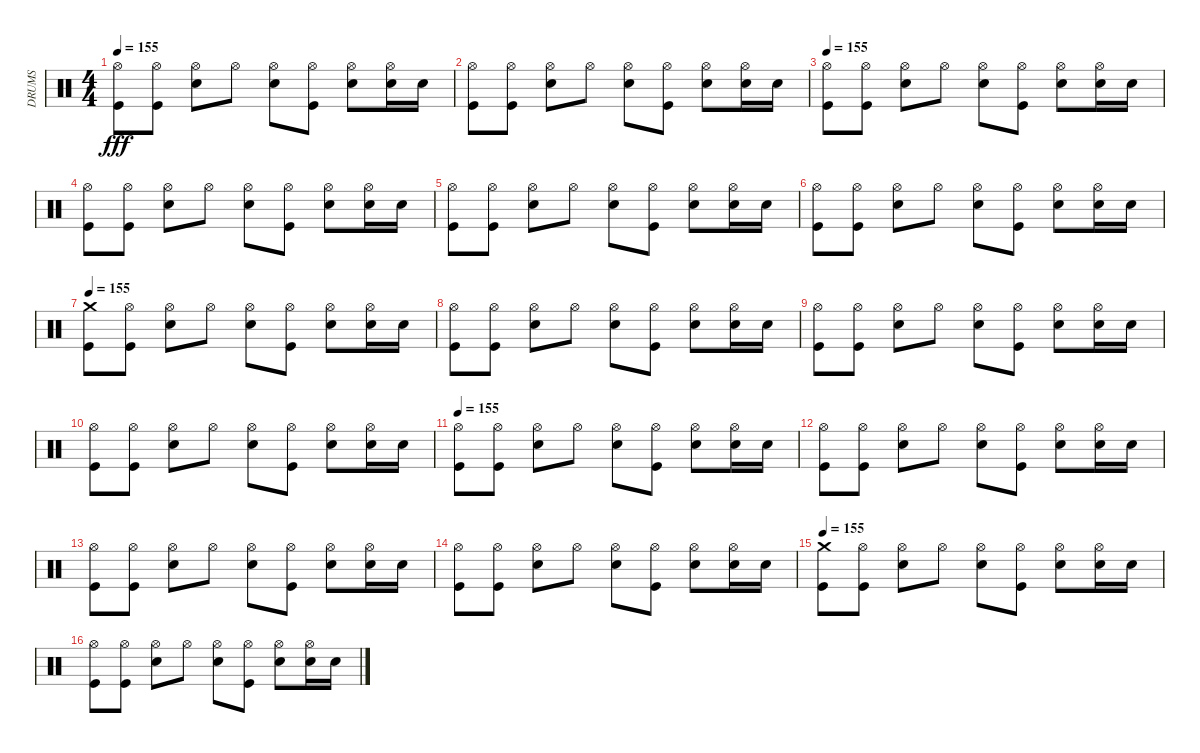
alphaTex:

\track ("DRUMS" "DRUMS") {instrument percussion}
\staff {score}
\articulation defaults
\ts (4 4)
\tempo 155
\clef neutral
\ks c
("Kick (hit)" "Hi-Hat (open)").8{dy fff} ("Kick (hit)" "Hi-Hat (open)").8 ("Snare (hit) 2" "Hi-Hat (open)").8 "Hi-Hat (open)".8 ("Snare (hit) 2" "Hi-Hat (open)").8 ("Kick (hit)" "Hi-Hat (open)").8 ("Snare (hit) 2" "Hi-Hat (open)").8 ("Snare (hit) 2" "Hi-Hat (open)").16 "Snare (hit) 2".16 |
("Kick (hit)" "Hi-Hat (open)").8 ("Kick (hit)" "Hi-Hat (open)").8 ("Snare (hit) 2" "Hi-Hat (open)").8 "Hi-Hat (open)".8 ("Snare (hit) 2" "Hi-Hat (open)").8 ("Kick (hit)" "Hi-Hat (open)").8 ("Snare (hit) 2" "Hi-Hat (open)").8 ("Snare (hit) 2" "Hi-Hat (open)").16 "Snare (hit) 2".16 |
\tempo 155
("Kick (hit)" "Hi-Hat (open)").8 ("Kick (hit)" "Hi-Hat (open)").8 ("Snare (hit) 2" "Hi-Hat (open)").8 "Hi-Hat (open)".8 ("Snare (hit) 2" "Hi-Hat (open)").8 ("Kick (hit)" "Hi-Hat (open)").8 ("Snare (hit) 2" "Hi-Hat (open)").8 ("Snare (hit) 2" "Hi-Hat (open)").16 "Snare (hit) 2".16 |
("Kick (hit)" "Hi-Hat (open)").8 ("Kick (hit)" "Hi-Hat (open)").8 ("Snare (hit) 2" "Hi-Hat (open)").8 "Hi-Hat (open)".8 ("Snare (hit) 2" "Hi-Hat (open)").8 ("Kick (hit)" "Hi-Hat (open)").8 ("Snare (hit) 2" "Hi-Hat (open)").8 ("Snare (hit) 2" "Hi-Hat (open)").16 "Snare (hit) 2".16 |
("Kick (hit)" "Hi-Hat (open)").8 ("Kick (hit)" "Hi-Hat (open)").8 ("Snare (hit) 2" "Hi-Hat (open)").8 "Hi-Hat (open)".8 ("Snare (hit) 2" "Hi-Hat (open)").8 ("Kick (hit)" "Hi-Hat (open)").8 ("Snare (hit) 2" "Hi-Hat (open)").8 ("Snare (hit) 2" "Hi-Hat (open)").16 "Snare (hit) 2".16 |
("Kick (hit)" "Hi-Hat (open)").8 ("Kick (hit)" "Hi-Hat (open)").8 ("Snare (hit) 2" "Hi-Hat (open)").8 "Hi-Hat (open)".8 ("Snare (hit) 2" "Hi-Hat (open)").8 ("Kick (hit)" "Hi-Hat (open)").8 ("Snare (hit) 2" "Hi-Hat (open)").8 ("Snare (hit) 2" "Hi-Hat (open)").16 "Snare (hit) 2".16 |
\tempo 155
("Kick (hit)" "Crash medium (hit)").8 ("Kick (hit)" "Hi-Hat (open)").8 ("Snare (hit) 2" "Hi-Hat (open)").8 "Hi-Hat (open)".8 ("Snare (hit) 2" "Hi-Hat (open)").8 ("Kick (hit)" "Hi-Hat (open)").8 ("Snare (hit) 2" "Hi-Hat (open)").8 ("Snare (hit) 2" "Hi-Hat (open)").16 "Snare (hit) 2".16 |
("Kick (hit)" "Hi-Hat (open)").8 ("Kick (hit)" "Hi-Hat (open)").8 ("Snare (hit) 2" "Hi-Hat (open)").8 "Hi-Hat (open)".8 ("Snare (hit) 2" "Hi-Hat (open)").8 ("Kick (hit)" "Hi-Hat (open)").8 ("Snare (hit) 2" "Hi-Hat (open)").8 ("Snare (hit) 2" "Hi-Hat (open)").16 "Snare (hit) 2".16 |
("Kick (hit)" "Hi-Hat (open)").8 ("Kick (hit)" "Hi-Hat (open)").8 ("Snare (hit) 2" "Hi-Hat (open)").8 "Hi-Hat (open)".8 ("Snare (hit) 2" "Hi-Hat (open)").8 ("Kick (hit)" "Hi-Hat (open)").8 ("Snare (hit) 2" "Hi-Hat (open)").8 ("Snare (hit) 2" "Hi-Hat (open)").16 "Snare (hit) 2".16 |
("Kick (hit)" "Hi-Hat (open)").8 ("Kick (hit)" "Hi-Hat (open)").8 ("Snare (hit) 2" "Hi-Hat (open)").8 "Hi-Hat (open)".8 ("Snare (hit) 2" "Hi-Hat (open)").8 ("Kick (hit)" "Hi-Hat (open)").8 ("Snare (hit) 2" "Hi-Hat (open)").8 ("Snare (hit) 2" "Hi-Hat (open)").16 "Snare (hit) 2".16 |
\tempo 155
("Kick (hit)" "Hi-Hat (open)").8 ("Kick (hit)" "Hi-Hat (open)").8 ("Snare (hit) 2" "Hi-Hat (open)").8 "Hi-Hat (open)".8 ("Snare (hit) 2" "Hi-Hat (open)").8 ("Kick (hit)" "Hi-Hat (open)").8 ("Snare (hit) 2" "Hi-Hat (open)").8 ("Snare (hit) 2" "Hi-Hat (open)").16 "Snare (hit) 2".16 |
("Kick (hit)" "Hi-Hat (open)").8 ("Kick (hit)" "Hi-Hat (open)").8 ("Snare (hit) 2" "Hi-Hat (open)").8 "Hi-Hat (open)".8 ("Snare (hit) 2" "Hi-Hat (open)").8 ("Kick (hit)" "Hi-Hat (open)").8 ("Snare (hit) 2" "Hi-Hat (open)").8 ("Snare (hit) 2" "Hi-Hat (open)").16 "Snare (hit) 2".16 |
("Kick (hit)" "Hi-Hat (open)").8 ("Kick (hit)" "Hi-Hat (open)").8 ("Snare (hit) 2" "Hi-Hat (open)").8 "Hi-Hat (open)".8 ("Snare (hit) 2" "Hi-Hat (open)").8 ("Kick (hit)" "Hi-Hat (open)").8 ("Snare (hit) 2" "Hi-Hat (open)").8 ("Snare (hit) 2" "Hi-Hat (open)").16 "Snare (hit) 2".16 |
("Kick (hit)" "Hi-Hat (open)").8 ("Kick (hit)" "Hi-Hat (open)").8 ("Snare (hit) 2" "Hi-Hat (open)").8 "Hi-Hat (open)".8 ("Snare (hit) 2" "Hi-Hat (open)").8 ("Kick (hit)" "Hi-Hat (open)").8 ("Snare (hit) 2" "Hi-Hat (open)").8 ("Snare (hit) 2" "Hi-Hat (open)").16 "Snare (hit) 2".16 |
\tempo 155
("Kick (hit)" "Crash medium (hit)").8 ("Kick (hit)" "Hi-Hat (open)").8 ("Snare (hit) 2" "Hi-Hat (open)").8 "Hi-Hat (open)".8 ("Snare (hit) 2" "Hi-Hat (open)").8 ("Kick (hit)" "Hi-Hat (open)").8 ("Snare (hit) 2" "Hi-Hat (open)").8 ("Snare (hit) 2" "Hi-Hat (open)").16 "Snare (hit) 2".16 |
("Kick (hit)" "Hi-Hat (open)").8 ("Kick (hit)" "Hi-Hat (open)").8 ("Snare (hit) 2" "Hi-Hat (open)").8 "Hi-Hat (open)".8 ("Snare (hit) 2" "Hi-Hat (open)").8 ("Kick (hit)" "Hi-Hat (open)").8 ("Snare (hit) 2" "Hi-Hat (open)").8 ("Snare (hit) 2" "Hi-Hat (open)").16 "Snare (hit) 2".16
